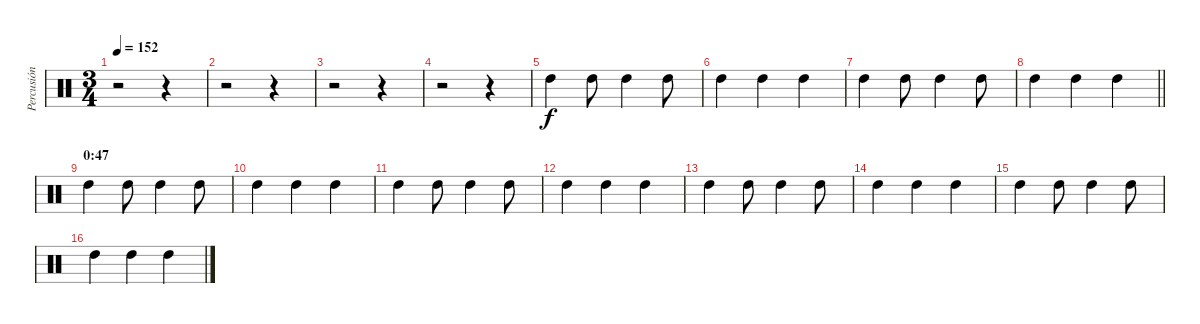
\track ("Percusión" "Percusión") {instrument percussion}
\staff {score}
\articulation defaults
\ts (3 4)
\tempo 152
\clef neutral
\ks c
r.2{dy p} r.4 |
r.2 r.4 |
r.2 r.4 |
r.2 r.4 |
"High Tom (hit)".4{dy f} "High Tom (hit)".8 "High Tom (hit)".4 "High Tom (hit)".8 |
"High Tom (hit)".4 "High Tom (hit)".4 "High Tom (hit)".4 |
"High Tom (hit)".4 "High Tom (hit)".8 "High Tom (hit)".4 "High Tom (hit)".8 |
\barLineRight lightlight "High Tom (hit)".4 "High Tom (hit)".4 "High Tom (hit)".4
|
\section ("" "0:47")
"High Tom (hit)".4 "High Tom (hit)".8 "High Tom (hit)".4 "High Tom (hit)".8 |
"High Tom (hit)".4 "High Tom (hit)".4 "High Tom (hit)".4 |
"High Tom (hit)".4 "High Tom (hit)".8 "High Tom (hit)".4 "High Tom (hit)".8 |
"High Tom (hit)".4 "High Tom (hit)".4 "High Tom (hit)".4 |
"High Tom (hit)".4 "High Tom (hit)".8 "High Tom (hit)".4 "High Tom (hit)".8 |
"High Tom (hit)".4 "High Tom (hit)".4 "High Tom (hit)".4 |
"High Tom (hit)".4 "High Tom (hit)".8 "High Tom (hit)".4 "High Tom (hit)".8 |
"High Tom (hit)".4 "High Tom (hit)".4 "High Tom (hit)".4
